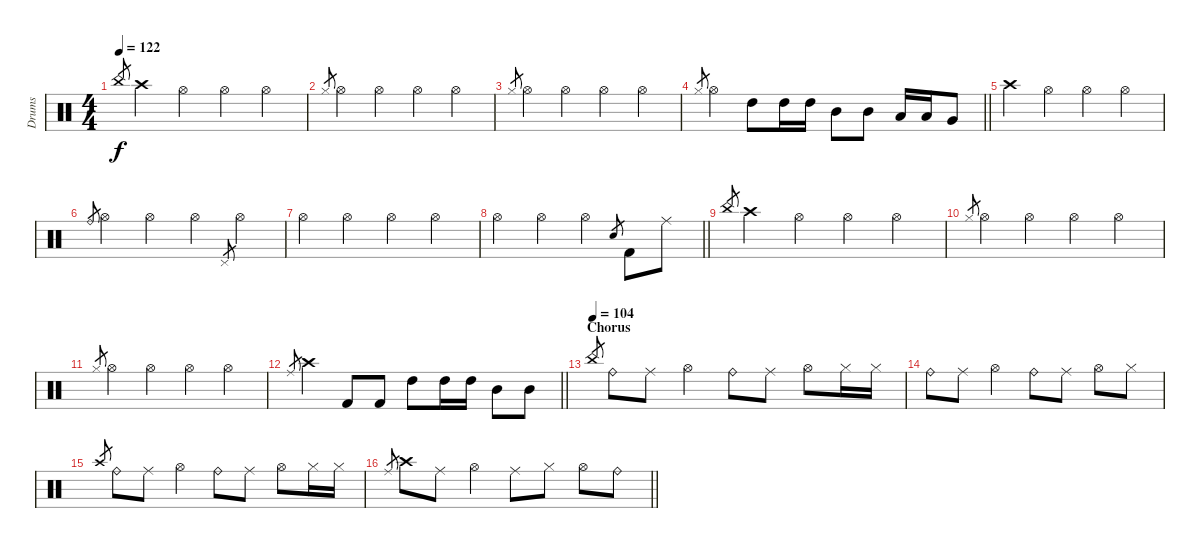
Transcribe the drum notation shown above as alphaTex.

\track ("Drums" "Drums") {instrument percussion}
\staff {score}
\articulation defaults
\ts (4 4)
\tempo 122
\clef neutral
\ks c "China (hit)".8{gr dy f} "Crash high (hit)".4 "Hi-Hat (open)".4 "Hi-Hat (open)".4 "Hi-Hat (open)".4
|
"Hi-Hat (closed)".8{gr} "Hi-Hat (open)".4 "Hi-Hat (open)".4 "Hi-Hat (open)".4 "Hi-Hat (open)".4 |
"Hi-Hat (closed)".8{gr} "Hi-Hat (open)".4 "Hi-Hat (open)".4 "Hi-Hat (open)".4 "Hi-Hat (open)".4 |
\barLineRight lightlight "Hi-Hat (closed)".8{gr} "Hi-Hat (open)".4 "High Tom (hit)".8 "High Tom (hit)".16 "High Tom (hit)".16 "Mid Tom (hit)".8 "Mid Tom (hit)".8 "Low Tom (hit)".16 "Low Tom (hit)".16 "Very Low Tom (hit)".8
|
"Crash high (hit)".4 "Hi-Hat (open)".4 "Hi-Hat (open)".4 "Hi-Hat (open)".4 |
"Ride (bell)".8{gr} "Hi-Hat (open)".4 "Hi-Hat (open)".4 "Hi-Hat (open)".4 "Pedal Hi-Hat (hit)".8{gr} "Hi-Hat (open)".4 |
"Hi-Hat (open)".4 "Hi-Hat (open)".4 "Hi-Hat (open)".4 "Hi-Hat (open)".4 |
\barLineRight lightlight "Hi-Hat (open)".4 "Hi-Hat (open)".4 "Hi-Hat (open)".4 "Electric Snare (hit)".8{gr} "Kick (hit) 2".8 "Ride (middle)".8
|
"China (hit)".8{gr} "Crash high (hit)".4 "Hi-Hat (open)".4 "Hi-Hat (open)".4 "Hi-Hat (open)".4 |
"Hi-Hat (closed)".8{gr} "Hi-Hat (open)".4 "Hi-Hat (open)".4 "Hi-Hat (open)".4 "Hi-Hat (open)".4 |
"Hi-Hat (closed)".8{gr} "Hi-Hat (open)".4 "Hi-Hat (open)".4 "Hi-Hat (open)".4 "Hi-Hat (open)".4 |
\barLineRight lightlight "Ride (middle)".8{gr} "Crash high (hit)".4 "Kick (hit) 2".8 "Kick (hit) 2".8 "High Tom (hit)".8 "High Tom (hit)".16 "High Tom (hit)".16 "Mid Tom (hit)".8 "Mid Tom (hit)".8
|
\section ("" "Chorus")
\tempo (104)
"China (hit)".8{gr} "Ride (bell)".8 "Ride (middle)".8 "Hi-Hat (open)".4 "Ride (bell)".8 "Ride (middle)".8 "Hi-Hat (open)".8 "Hi-Hat (closed)".16 "Hi-Hat (closed)".16 |
"Ride (bell)".8 "Ride (middle)".8 "Hi-Hat (open)".4 "Ride (bell)".8 "Ride (middle)".8 "Hi-Hat (open)".8 "Hi-Hat (closed)".8 |
"Crash high (hit)".8{gr} "Ride (bell)".8 "Ride (middle)".8 "Hi-Hat (open)".4 "Ride (bell)".8 "Ride (middle)".8 "Hi-Hat (open)".8 "Hi-Hat (closed)".16 "Hi-Hat (closed)".16 |
\barLineRight lightlight "Ride (middle)".8{gr} "Crash high (hit)".8 "Ride (middle)".8 "Hi-Hat (open)".4 "Ride (middle)".8 "Hi-Hat (closed)".8 "Hi-Hat (open)".8 "Ride (bell)".8
